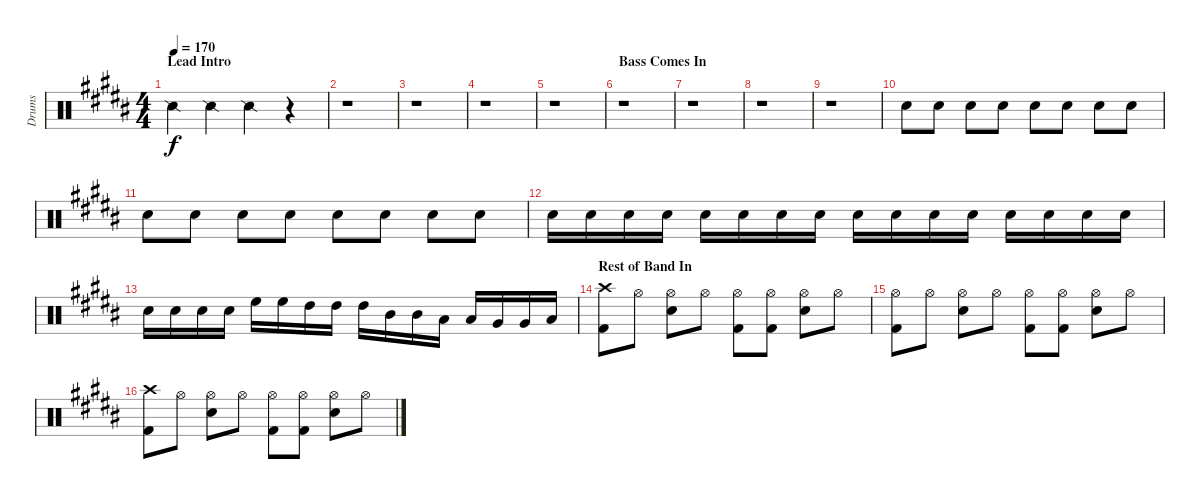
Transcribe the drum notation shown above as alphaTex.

\track ("Drums" "Drums") {instrument percussion}
\staff {score}
\articulation defaults
\ts (4 4)
\section ("" "Lead Intro")
\tempo 170
\clef neutral
\ks b "Snare (side stick) 2".4{dy f} "Snare (side stick) 2".4 "Snare (side stick) 2".4
r.4 |
r.1 |
r.1 |
r.1 |
r.1 |
\section ("" "Bass Comes In")
r.1 |
r.1 |
r.1 |
r.1 |
"Electric Snare (hit)".8 "Electric Snare (hit)".8 "Electric Snare (hit)".8 "Electric Snare (hit)".8 "Electric Snare (hit)".8 "Electric Snare (hit)".8 "Electric Snare (hit)".8 "Electric Snare (hit)".8 |
"Electric Snare (hit)".8 "Electric Snare (hit)".8 "Electric Snare (hit)".8 "Electric Snare (hit)".8 "Electric Snare (hit)".8 "Electric Snare (hit)".8 "Electric Snare (hit)".8 "Electric Snare (hit)".8 |
"Electric Snare (hit)".16 "Electric Snare (hit)".16 "Electric Snare (hit)".16 "Electric Snare (hit)".16 "Electric Snare (hit)".16 "Electric Snare (hit)".16 "Electric Snare (hit)".16 "Electric Snare (hit)".16 "Electric Snare (hit)".16 "Electric Snare (hit)".16 "Electric Snare (hit)".16 "Electric Snare (hit)".16 "Electric Snare (hit)".16 "Electric Snare (hit)".16 "Electric Snare (hit)".16 "Electric Snare (hit)".16 |
"Electric Snare (hit)".16 "Electric Snare (hit)".16 "Electric Snare (hit)".16 "Electric Snare (hit)".16 "High Floor Tom (hit)".16 "High Floor Tom (hit)".16 "High Tom (hit)".16 "High Tom (hit)".16 "High Tom (hit)".16 "Mid Tom (hit)".16 "Mid Tom (hit)".16 "Low Tom (hit)".16 "Low Tom (hit)".16 "Very Low Tom (hit)".16 "Very Low Tom (hit)".16 "Low Floor Tom (hit)".16 |
\section ("" "Rest of Band In")
("Crash high (hit)" "Kick (hit) 2").8 "Hi-Hat (open)".8 ("Hi-Hat (open)" "Electric Snare (hit)").8 "Hi-Hat (open)".8 ("Hi-Hat (open)" "Kick (hit) 2").8 ("Hi-Hat (open)" "Kick (hit) 2").8 ("Hi-Hat (open)" "Electric Snare (hit)").8 "Hi-Hat (open)".8 |
("Hi-Hat (open)" "Kick (hit) 2").8 "Hi-Hat (open)".8 ("Hi-Hat (open)" "Electric Snare (hit)").8 "Hi-Hat (open)".8 ("Hi-Hat (open)" "Kick (hit) 2").8 ("Hi-Hat (open)" "Kick (hit) 2").8 ("Hi-Hat (open)" "Electric Snare (hit)").8 "Hi-Hat (open)".8 |
("Crash high (hit)" "Kick (hit) 2").8 "Hi-Hat (open)".8 ("Hi-Hat (open)" "Electric Snare (hit)").8 "Hi-Hat (open)".8 ("Hi-Hat (open)" "Kick (hit) 2").8 ("Hi-Hat (open)" "Kick (hit) 2").8 ("Hi-Hat (open)" "Electric Snare (hit)").8 "Hi-Hat (open)".8
